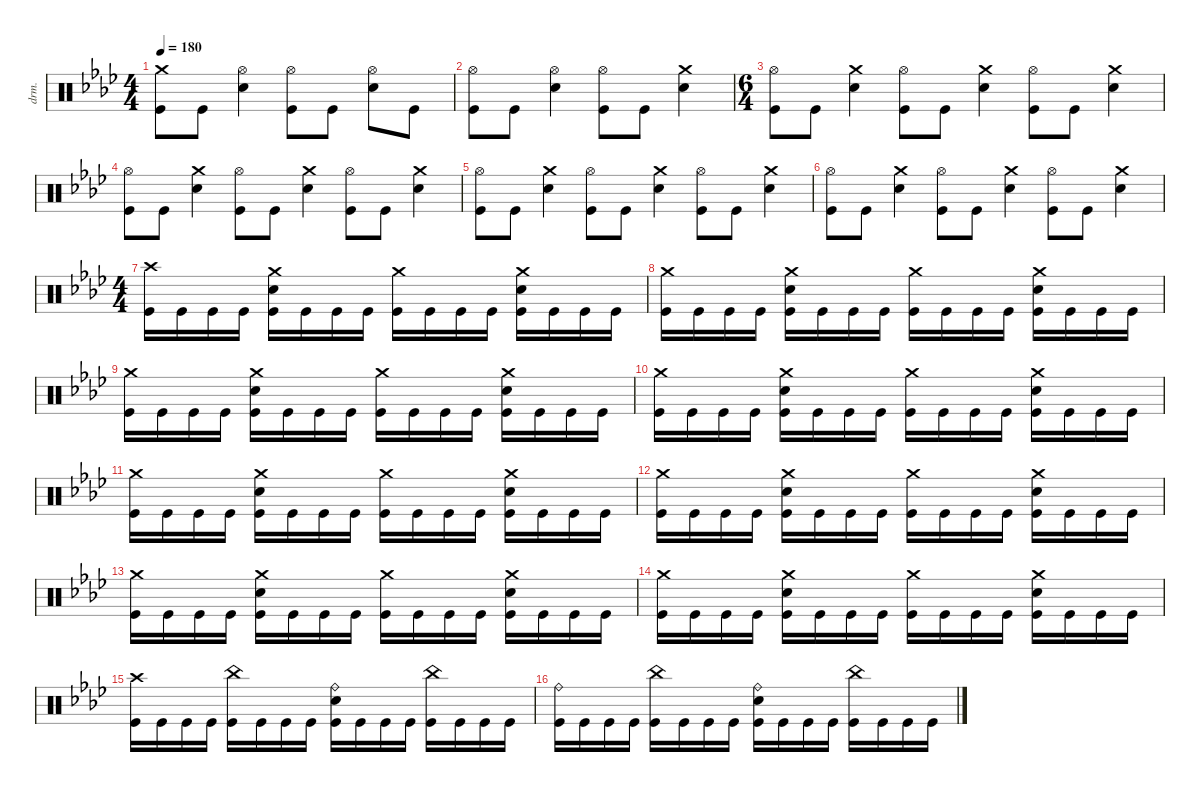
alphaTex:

\defaultSystemsLayout 4
\hideDynamics
\bracketExtendMode nobrackets
\otherSystemsTrackNameOrientation horizontal
\track ("Percussion" "drm.") {instrument percussion}
\staff {score}
\articulation defaults
\ts (4 4)
\tempo 180
\clef neutral
\ks fminor
("Crash medium (hit)"{acc forcenatural} "Kick (hit)"{acc forcenatural}).8{dy f beam Down} "Kick (hit)"{acc forcenatural}.8{beam Down} ("Hi-Hat (open)"{acc forcenatural} "Snare (hit) 2"{acc forcenatural}).4{beam Down} ("Hi-Hat (open)"{acc forcenatural} "Kick (hit)"{acc forcenatural}).8{beam Down} "Kick (hit)"{acc forcenatural}.8{beam Down} ("Hi-Hat (open)"{acc forcenatural} "Snare (hit) 2"{acc forcenatural}).8{beam Down} "Kick (hit)"{acc forcenatural}.8{beam Down} |
("Hi-Hat (open)"{acc forcenatural} "Kick (hit)"{acc forcenatural}).8{beam Down} "Kick (hit)"{acc forcenatural}.8{beam Down} ("Hi-Hat (open)"{acc forcenatural} "Snare (hit) 2"{acc forcenatural}).4{beam Down} ("Hi-Hat (open)"{acc forcenatural} "Kick (hit)"{acc forcenatural}).8{beam Down} "Kick (hit)"{acc forcenatural}.8{beam Down} ("Crash medium (hit)"{acc forcenatural} "Snare (hit) 2"{acc forcenatural}).4{beam Down} |
\ts (6 4)
\beaming (8 6 6)
("Hi-Hat (open)"{acc forcenatural} "Kick (hit)"{acc forcenatural}).8{beam Down} "Kick (hit)"{acc forcenatural}.8{beam Down} ("Crash medium (hit)"{acc forcenatural} "Snare (hit) 2"{acc forcenatural}).4{beam Down} ("Hi-Hat (open)"{acc forcenatural} "Kick (hit)"{acc forcenatural}).8{beam Down} "Kick (hit)"{acc forcenatural}.8{beam Down} ("Crash medium (hit)"{acc forcenatural} "Snare (hit) 2"{acc forcenatural}).4{beam Down} ("Hi-Hat (open)"{acc forcenatural} "Kick (hit)"{acc forcenatural}).8{beam Down} "Kick (hit)"{acc forcenatural}.8{beam Down} ("Crash medium (hit)"{acc forcenatural} "Snare (hit) 2"{acc forcenatural}).4{beam Down} |
("Hi-Hat (open)"{acc forcenatural} "Kick (hit)"{acc forcenatural}).8{beam Down} "Kick (hit)"{acc forcenatural}.8{beam Down} ("Crash medium (hit)"{acc forcenatural} "Snare (hit) 2"{acc forcenatural}).4{beam Down} ("Hi-Hat (open)"{acc forcenatural} "Kick (hit)"{acc forcenatural}).8{beam Down} "Kick (hit)"{acc forcenatural}.8{beam Down} ("Crash medium (hit)"{acc forcenatural} "Snare (hit) 2"{acc forcenatural}).4{beam Down} ("Hi-Hat (open)"{acc forcenatural} "Kick (hit)"{acc forcenatural}).8{beam Down} "Kick (hit)"{acc forcenatural}.8{beam Down} ("Crash medium (hit)"{acc forcenatural} "Snare (hit) 2"{acc forcenatural}).4{beam Down} |
("Hi-Hat (open)"{acc forcenatural} "Kick (hit)"{acc forcenatural}).8{beam Down} "Kick (hit)"{acc forcenatural}.8{beam Down} ("Crash medium (hit)"{acc forcenatural} "Snare (hit) 2"{acc forcenatural}).4{beam Down} ("Hi-Hat (open)"{acc forcenatural} "Kick (hit)"{acc forcenatural}).8{beam Down} "Kick (hit)"{acc forcenatural}.8{beam Down} ("Crash medium (hit)"{acc forcenatural} "Snare (hit) 2"{acc forcenatural}).4{beam Down} ("Hi-Hat (open)"{acc forcenatural} "Kick (hit)"{acc forcenatural}).8{beam Down} "Kick (hit)"{acc forcenatural}.8{beam Down} ("Crash medium (hit)"{acc forcenatural} "Snare (hit) 2"{acc forcenatural}).4{beam Down} |
("Hi-Hat (open)"{acc forcenatural} "Kick (hit)"{acc forcenatural}).8{beam Down} "Kick (hit)"{acc forcenatural}.8{beam Down} ("Crash medium (hit)"{acc forcenatural} "Snare (hit) 2"{acc forcenatural}).4{beam Down} ("Hi-Hat (open)"{acc forcenatural} "Kick (hit)"{acc forcenatural}).8{beam Down} "Kick (hit)"{acc forcenatural}.8{beam Down} ("Crash medium (hit)"{acc forcenatural} "Snare (hit) 2"{acc forcenatural}).4{beam Down} ("Hi-Hat (open)"{acc forcenatural} "Kick (hit)"{acc forcenatural}).8{beam Down} "Kick (hit)"{acc forcenatural}.8{beam Down} ("Crash medium (hit)"{acc forcenatural} "Snare (hit) 2"{acc forcenatural}).4{beam Down} |
\ts (4 4)
\beaming (8 2 2 2 2)
("Crash high (hit)"{acc forcenatural} "Kick (hit)"{acc forcenatural}).16{beam Down} "Kick (hit)"{acc forcenatural}.16{beam Down} "Kick (hit)"{acc forcenatural}.16{beam Down} "Kick (hit)"{acc forcenatural}.16{beam Down} ("Crash medium (hit)"{acc forcenatural} "Snare (hit) 2"{acc forcenatural} "Kick (hit)"{acc forcenatural}).16{beam Down} "Kick (hit)"{acc forcenatural}.16{beam Down} "Kick (hit)"{acc forcenatural}.16{beam Down} "Kick (hit)"{acc forcenatural}.16{beam Down} ("Crash medium (hit)"{acc forcenatural} "Kick (hit)"{acc forcenatural}).16{beam Down} "Kick (hit)"{acc forcenatural}.16{beam Down} "Kick (hit)"{acc forcenatural}.16{beam Down} "Kick (hit)"{acc forcenatural}.16{beam Down} ("Crash medium (hit)"{acc forcenatural} "Snare (hit) 2"{acc forcenatural} "Kick (hit)"{acc forcenatural}).16{beam Down} "Kick (hit)"{acc forcenatural}.16{beam Down} "Kick (hit)"{acc forcenatural}.16{beam Down} "Kick (hit)"{acc forcenatural}.16{beam Down} |
("Crash medium (hit)"{acc forcenatural} "Kick (hit)"{acc forcenatural}).16{beam Down} "Kick (hit)"{acc forcenatural}.16{beam Down} "Kick (hit)"{acc forcenatural}.16{beam Down} "Kick (hit)"{acc forcenatural}.16{beam Down} ("Crash medium (hit)"{acc forcenatural} "Snare (hit) 2"{acc forcenatural} "Kick (hit)"{acc forcenatural}).16{beam Down} "Kick (hit)"{acc forcenatural}.16{beam Down} "Kick (hit)"{acc forcenatural}.16{beam Down} "Kick (hit)"{acc forcenatural}.16{beam Down} ("Crash medium (hit)"{acc forcenatural} "Kick (hit)"{acc forcenatural}).16{beam Down} "Kick (hit)"{acc forcenatural}.16{beam Down} "Kick (hit)"{acc forcenatural}.16{beam Down} "Kick (hit)"{acc forcenatural}.16{beam Down} ("Crash medium (hit)"{acc forcenatural} "Snare (hit) 2"{acc forcenatural} "Kick (hit)"{acc forcenatural}).16{beam Down} "Kick (hit)"{acc forcenatural}.16{beam Down} "Kick (hit)"{acc forcenatural}.16{beam Down} "Kick (hit)"{acc forcenatural}.16{beam Down} |
("Crash medium (hit)"{acc forcenatural} "Kick (hit)"{acc forcenatural}).16{beam Down} "Kick (hit)"{acc forcenatural}.16{beam Down} "Kick (hit)"{acc forcenatural}.16{beam Down} "Kick (hit)"{acc forcenatural}.16{beam Down} ("Crash medium (hit)"{acc forcenatural} "Snare (hit) 2"{acc forcenatural} "Kick (hit)"{acc forcenatural}).16{beam Down} "Kick (hit)"{acc forcenatural}.16{beam Down} "Kick (hit)"{acc forcenatural}.16{beam Down} "Kick (hit)"{acc forcenatural}.16{beam Down} ("Crash medium (hit)"{acc forcenatural} "Kick (hit)"{acc forcenatural}).16{beam Down} "Kick (hit)"{acc forcenatural}.16{beam Down} "Kick (hit)"{acc forcenatural}.16{beam Down} "Kick (hit)"{acc forcenatural}.16{beam Down} ("Crash medium (hit)"{acc forcenatural} "Snare (hit) 2"{acc forcenatural} "Kick (hit)"{acc forcenatural}).16{beam Down} "Kick (hit)"{acc forcenatural}.16{beam Down} "Kick (hit)"{acc forcenatural}.16{beam Down} "Kick (hit)"{acc forcenatural}.16{beam Down} |
("Crash medium (hit)"{acc forcenatural} "Kick (hit)"{acc forcenatural}).16{beam Down} "Kick (hit)"{acc forcenatural}.16{beam Down} "Kick (hit)"{acc forcenatural}.16{beam Down} "Kick (hit)"{acc forcenatural}.16{beam Down} ("Crash medium (hit)"{acc forcenatural} "Snare (hit) 2"{acc forcenatural} "Kick (hit)"{acc forcenatural}).16{beam Down} "Kick (hit)"{acc forcenatural}.16{beam Down} "Kick (hit)"{acc forcenatural}.16{beam Down} "Kick (hit)"{acc forcenatural}.16{beam Down} ("Crash medium (hit)"{acc forcenatural} "Kick (hit)"{acc forcenatural}).16{beam Down} "Kick (hit)"{acc forcenatural}.16{beam Down} "Kick (hit)"{acc forcenatural}.16{beam Down} "Kick (hit)"{acc forcenatural}.16{beam Down} ("Crash medium (hit)"{acc forcenatural} "Snare (hit) 2"{acc forcenatural} "Kick (hit)"{acc forcenatural}).16{beam Down} "Kick (hit)"{acc forcenatural}.16{beam Down} "Kick (hit)"{acc forcenatural}.16{beam Down} "Kick (hit)"{acc forcenatural}.16{beam Down} |
("Crash medium (hit)"{acc forcenatural} "Kick (hit)"{acc forcenatural}).16{beam Down} "Kick (hit)"{acc forcenatural}.16{beam Down} "Kick (hit)"{acc forcenatural}.16{beam Down} "Kick (hit)"{acc forcenatural}.16{beam Down} ("Crash medium (hit)"{acc forcenatural} "Snare (hit) 2"{acc forcenatural} "Kick (hit)"{acc forcenatural}).16{beam Down} "Kick (hit)"{acc forcenatural}.16{beam Down} "Kick (hit)"{acc forcenatural}.16{beam Down} "Kick (hit)"{acc forcenatural}.16{beam Down} ("Crash medium (hit)"{acc forcenatural} "Kick (hit)"{acc forcenatural}).16{beam Down} "Kick (hit)"{acc forcenatural}.16{beam Down} "Kick (hit)"{acc forcenatural}.16{beam Down} "Kick (hit)"{acc forcenatural}.16{beam Down} ("Crash medium (hit)"{acc forcenatural} "Snare (hit) 2"{acc forcenatural} "Kick (hit)"{acc forcenatural}).16{beam Down} "Kick (hit)"{acc forcenatural}.16{beam Down} "Kick (hit)"{acc forcenatural}.16{beam Down} "Kick (hit)"{acc forcenatural}.16{beam Down} |
("Crash medium (hit)"{acc forcenatural} "Kick (hit)"{acc forcenatural}).16{beam Down} "Kick (hit)"{acc forcenatural}.16{beam Down} "Kick (hit)"{acc forcenatural}.16{beam Down} "Kick (hit)"{acc forcenatural}.16{beam Down} ("Crash medium (hit)"{acc forcenatural} "Snare (hit) 2"{acc forcenatural} "Kick (hit)"{acc forcenatural}).16{beam Down} "Kick (hit)"{acc forcenatural}.16{beam Down} "Kick (hit)"{acc forcenatural}.16{beam Down} "Kick (hit)"{acc forcenatural}.16{beam Down} ("Crash medium (hit)"{acc forcenatural} "Kick (hit)"{acc forcenatural}).16{beam Down} "Kick (hit)"{acc forcenatural}.16{beam Down} "Kick (hit)"{acc forcenatural}.16{beam Down} "Kick (hit)"{acc forcenatural}.16{beam Down} ("Crash medium (hit)"{acc forcenatural} "Snare (hit) 2"{acc forcenatural} "Kick (hit)"{acc forcenatural}).16{beam Down} "Kick (hit)"{acc forcenatural}.16{beam Down} "Kick (hit)"{acc forcenatural}.16{beam Down} "Kick (hit)"{acc forcenatural}.16{beam Down} |
("Crash medium (hit)"{acc forcenatural} "Kick (hit)"{acc forcenatural}).16{beam Down} "Kick (hit)"{acc forcenatural}.16{beam Down} "Kick (hit)"{acc forcenatural}.16{beam Down} "Kick (hit)"{acc forcenatural}.16{beam Down} ("Crash medium (hit)"{acc forcenatural} "Snare (hit) 2"{acc forcenatural} "Kick (hit)"{acc forcenatural}).16{beam Down} "Kick (hit)"{acc forcenatural}.16{beam Down} "Kick (hit)"{acc forcenatural}.16{beam Down} "Kick (hit)"{acc forcenatural}.16{beam Down} ("Crash medium (hit)"{acc forcenatural} "Kick (hit)"{acc forcenatural}).16{beam Down} "Kick (hit)"{acc forcenatural}.16{beam Down} "Kick (hit)"{acc forcenatural}.16{beam Down} "Kick (hit)"{acc forcenatural}.16{beam Down} ("Crash medium (hit)"{acc forcenatural} "Snare (hit) 2"{acc forcenatural} "Kick (hit)"{acc forcenatural}).16{beam Down} "Kick (hit)"{acc forcenatural}.16{beam Down} "Kick (hit)"{acc forcenatural}.16{beam Down} "Kick (hit)"{acc forcenatural}.16{beam Down} |
("Crash medium (hit)"{acc forcenatural} "Kick (hit)"{acc forcenatural}).16{beam Down} "Kick (hit)"{acc forcenatural}.16{beam Down} "Kick (hit)"{acc forcenatural}.16{beam Down} "Kick (hit)"{acc forcenatural}.16{beam Down} ("Crash medium (hit)"{acc forcenatural} "Snare (hit) 2"{acc forcenatural} "Kick (hit)"{acc forcenatural}).16{beam Down} "Kick (hit)"{acc forcenatural}.16{beam Down} "Kick (hit)"{acc forcenatural}.16{beam Down} "Kick (hit)"{acc forcenatural}.16{beam Down} ("Crash medium (hit)"{acc forcenatural} "Kick (hit)"{acc forcenatural}).16{beam Down} "Kick (hit)"{acc forcenatural}.16{beam Down} "Kick (hit)"{acc forcenatural}.16{beam Down} "Kick (hit)"{acc forcenatural}.16{beam Down} ("Crash medium (hit)"{acc forcenatural} "Snare (hit) 2"{acc forcenatural} "Kick (hit)"{acc forcenatural}).16{beam Down} "Kick (hit)"{acc forcenatural}.16{beam Down} "Kick (hit)"{acc forcenatural}.16{beam Down} "Kick (hit)"{acc forcenatural}.16{beam Down} |
("Crash high (hit)"{acc forcenatural} "Kick (hit)"{acc forcenatural}).16{beam Down} "Kick (hit)"{acc forcenatural}.16{beam Down} "Kick (hit)"{acc forcenatural}.16{beam Down} "Kick (hit)"{acc forcenatural}.16{beam Down} ("China (hit)"{acc forcenatural} "Kick (hit)"{acc forcenatural}).16{beam Down} "Kick (hit)"{acc forcenatural}.16{beam Down} "Kick (hit)"{acc forcenatural}.16{beam Down} "Kick (hit)"{acc forcenatural}.16{beam Down} ("Ride (bell)"{acc forcenatural} "Snare (hit) 2"{acc forcenatural} "Kick (hit)"{acc forcenatural}).16{beam Down} "Kick (hit)"{acc forcenatural}.16{beam Down} "Kick (hit)"{acc forcenatural}.16{beam Down} "Kick (hit)"{acc forcenatural}.16{beam Down} ("China (hit)"{acc forcenatural} "Kick (hit)"{acc forcenatural}).16{beam Down} "Kick (hit)"{acc forcenatural}.16{beam Down} "Kick (hit)"{acc forcenatural}.16{beam Down} "Kick (hit)"{acc forcenatural}.16{beam Down} |
("Ride (bell)"{acc forcenatural} "Kick (hit)"{acc forcenatural}).16{beam Down} "Kick (hit)"{acc forcenatural}.16{beam Down} "Kick (hit)"{acc forcenatural}.16{beam Down} "Kick (hit)"{acc forcenatural}.16{beam Down} ("China (hit)"{acc forcenatural} "Kick (hit)"{acc forcenatural}).16{beam Down} "Kick (hit)"{acc forcenatural}.16{beam Down} "Kick (hit)"{acc forcenatural}.16{beam Down} "Kick (hit)"{acc forcenatural}.16{beam Down} ("Ride (bell)"{acc forcenatural} "Snare (hit) 2"{acc forcenatural} "Kick (hit)"{acc forcenatural}).16{beam Down} "Kick (hit)"{acc forcenatural}.16{beam Down} "Kick (hit)"{acc forcenatural}.16{beam Down} "Kick (hit)"{acc forcenatural}.16{beam Down} ("China (hit)"{acc forcenatural} "Kick (hit)"{acc forcenatural}).16{beam Down} "Kick (hit)"{acc forcenatural}.16{beam Down} "Kick (hit)"{acc forcenatural}.16{beam Down} "Kick (hit)"{acc forcenatural}.16{beam Down}
